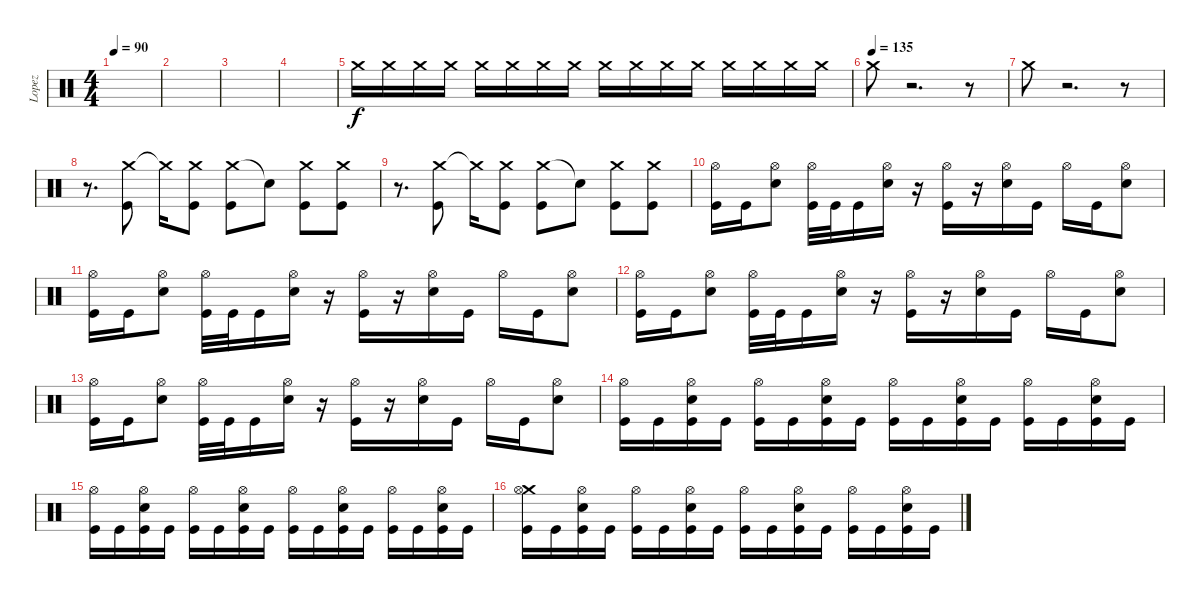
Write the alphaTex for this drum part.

\track ("Lopez" "Lopez") {instrument percussion}
\staff {score}
\articulation defaults
\ts (4 4)
\tempo 90
\clef neutral
\ks c
|
|
|
|
"Crash medium (hit)".16{volume 16} "Crash medium (hit)".16 "Crash medium (hit)".16 "Crash medium (hit)".16 "Crash medium (hit)".16 "Crash medium (hit)".16 "Crash medium (hit)".16 "Crash medium (hit)".16 "Crash medium (hit)".16 "Crash medium (hit)".16 "Crash medium (hit)".16 "Crash medium (hit)".16 "Crash medium (hit)".16 "Crash medium (hit)".16 "Crash medium (hit)".16 "Crash medium (hit)".16 |
\tempo (135)
"Crash medium (hit)".8 r.2{d} r.8 |
"Crash medium (hit)".8 r.2{d} r.8 |
r.8{d} ("Crash medium (hit)" "Kick (hit)").8 "Crash medium (hit)"{t}.16 ("Crash medium (hit)" "Kick (hit)").8 ("Crash medium (hit)" "Kick (hit)").8 "Snare (hit)"{t}.8 ("Crash medium (hit)" "Kick (hit)").8 ("Crash medium (hit)" "Kick (hit)").8 |
r.8{d} ("Crash medium (hit)" "Kick (hit)").8 "Crash medium (hit)"{t}.16 ("Crash medium (hit)" "Kick (hit)").8 ("Crash medium (hit)" "Kick (hit)").8 "Snare (hit)"{t}.8 ("Crash medium (hit)" "Kick (hit)").8 ("Crash medium (hit)" "Kick (hit)").8 |
("Hi-Hat (open)" "Kick (hit)").16 "Kick (hit)".16 ("Hi-Hat (open)" "Electric Snare (hit)").8 ("Hi-Hat (open)" "Kick (hit)").32 "Kick (hit)".32 "Kick (hit)".16 ("Hi-Hat (open)" "Electric Snare (hit)").16 r.16 ("Hi-Hat (open)" "Kick (hit)").16 r.16 ("Hi-Hat (open)" "Electric Snare (hit)").16 "Kick (hit)".16 "Hi-Hat (open)".16 "Kick (hit)".16 ("Hi-Hat (open)" "Electric Snare (hit)").8 |
("Hi-Hat (open)" "Kick (hit)").16 "Kick (hit)".16 ("Hi-Hat (open)" "Electric Snare (hit)").8 ("Hi-Hat (open)" "Kick (hit)").32 "Kick (hit)".32 "Kick (hit)".16 ("Hi-Hat (open)" "Electric Snare (hit)").16 r.16 ("Hi-Hat (open)" "Kick (hit)").16 r.16 ("Hi-Hat (open)" "Electric Snare (hit)").16 "Kick (hit)".16 "Hi-Hat (open)".16 "Kick (hit)".16 ("Hi-Hat (open)" "Electric Snare (hit)").8 |
("Hi-Hat (open)" "Kick (hit)").16 "Kick (hit)".16 ("Hi-Hat (open)" "Electric Snare (hit)").8 ("Hi-Hat (open)" "Kick (hit)").32 "Kick (hit)".32 "Kick (hit)".16 ("Hi-Hat (open)" "Electric Snare (hit)").16 r.16 ("Hi-Hat (open)" "Kick (hit)").16 r.16 ("Hi-Hat (open)" "Electric Snare (hit)").16 "Kick (hit)".16 "Hi-Hat (open)".16 "Kick (hit)".16 ("Hi-Hat (open)" "Electric Snare (hit)").8 |
("Hi-Hat (open)" "Kick (hit)").16 "Kick (hit)".16 ("Hi-Hat (open)" "Electric Snare (hit)").8 ("Hi-Hat (open)" "Kick (hit)").32 "Kick (hit)".32 "Kick (hit)".16 ("Hi-Hat (open)" "Electric Snare (hit)").16 r.16 ("Hi-Hat (open)" "Kick (hit)").16 r.16 ("Hi-Hat (open)" "Electric Snare (hit)").16 "Kick (hit)".16 "Hi-Hat (open)".16 "Kick (hit)".16 ("Hi-Hat (open)" "Electric Snare (hit)").8 |
("Hi-Hat (open)" "Kick (hit)").16 "Kick (hit)".16 ("Hi-Hat (open)" "Electric Snare (hit)" "Kick (hit)").16 "Kick (hit)".16 ("Hi-Hat (open)" "Kick (hit)").16 "Kick (hit)".16 ("Hi-Hat (open)" "Electric Snare (hit)" "Kick (hit)").16 "Kick (hit)".16 ("Hi-Hat (open)" "Kick (hit)").16 "Kick (hit)".16 ("Hi-Hat (open)" "Electric Snare (hit)" "Kick (hit)").16 "Kick (hit)".16 ("Hi-Hat (open)" "Kick (hit)").16 "Kick (hit)".16 ("Hi-Hat (open)" "Electric Snare (hit)" "Kick (hit)").16 "Kick (hit)".16 |
("Hi-Hat (open)" "Kick (hit)").16 "Kick (hit)".16 ("Hi-Hat (open)" "Electric Snare (hit)" "Kick (hit)").16 "Kick (hit)".16 ("Hi-Hat (open)" "Kick (hit)").16 "Kick (hit)".16 ("Hi-Hat (open)" "Electric Snare (hit)" "Kick (hit)").16 "Kick (hit)".16 ("Hi-Hat (open)" "Kick (hit)").16 "Kick (hit)".16 ("Hi-Hat (open)" "Electric Snare (hit)" "Kick (hit)").16 "Kick (hit)".16 ("Hi-Hat (open)" "Kick (hit)").16 "Kick (hit)".16 ("Hi-Hat (open)" "Electric Snare (hit)" "Kick (hit)").16 "Kick (hit)".16 |
("Crash medium (hit)" "Hi-Hat (open)" "Kick (hit)").16 "Kick (hit)".16 ("Hi-Hat (open)" "Electric Snare (hit)" "Kick (hit)").16 "Kick (hit)".16 ("Hi-Hat (open)" "Kick (hit)").16 "Kick (hit)".16 ("Hi-Hat (open)" "Electric Snare (hit)" "Kick (hit)").16 "Kick (hit)".16 ("Hi-Hat (open)" "Kick (hit)").16 "Kick (hit)".16 ("Hi-Hat (open)" "Electric Snare (hit)" "Kick (hit)").16 "Kick (hit)".16 ("Hi-Hat (open)" "Kick (hit)").16 "Kick (hit)".16 ("Hi-Hat (open)" "Electric Snare (hit)" "Kick (hit)").16 "Kick (hit)".16
